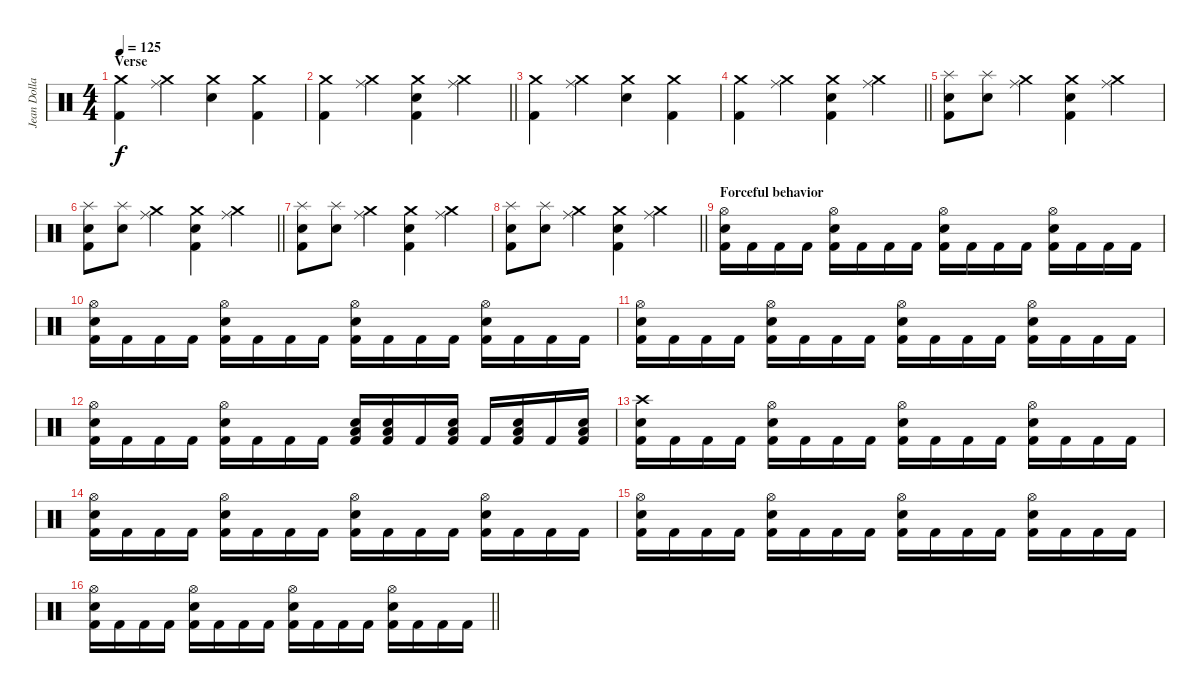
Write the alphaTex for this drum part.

\track ("Jean Dollabella" "Jean Dolla") {instrument percussion}
\staff {score}
\articulation defaults
\ts (4 4)
\section ("" "Verse")
\tempo 125
\clef neutral
\ks c
("Crash medium (hit)" "Kick (hit) 2").4{dy f} ("Crash medium (hit)" "Ride (middle)").4 ("Crash medium (hit)" "Snare (hit) 2").4 ("Crash medium (hit)" "Kick (hit) 2").4 |
\barLineRight lightlight
("Crash medium (hit)" "Kick (hit) 2").4 ("Crash medium (hit)" "Ride (middle)").4 ("Crash medium (hit)" "Snare (hit) 2" "Kick (hit) 2").4 ("Crash medium (hit)" "Ride (middle)").4 |
("Crash medium (hit)" "Kick (hit) 2").4 ("Crash medium (hit)" "Ride (middle)").4 ("Crash medium (hit)" "Snare (hit) 2").4 ("Crash medium (hit)" "Kick (hit) 2").4 |
\barLineRight lightlight
("Crash medium (hit)" "Kick (hit) 2").4 ("Crash medium (hit)" "Ride (middle)").4 ("Crash medium (hit)" "Snare (hit) 2" "Kick (hit) 2").4 ("Crash medium (hit)" "Ride (middle)").4 |
("Splash (hit)" "Snare (hit) 2" "Kick (hit) 2").8 ("Splash (hit)" "Snare (hit) 2").8 ("Crash medium (hit)" "Ride (middle)").4 ("Crash medium (hit)" "Snare (hit) 2" "Kick (hit) 2").4 ("Crash medium (hit)" "Ride (middle)").4 |
\barLineRight lightlight
("Splash (hit)" "Snare (hit) 2" "Kick (hit) 2").8 ("Splash (hit)" "Snare (hit) 2").8 ("Crash medium (hit)" "Ride (middle)").4 ("Crash medium (hit)" "Snare (hit) 2" "Kick (hit) 2").4 ("Crash medium (hit)" "Ride (middle)").4 |
("Splash (hit)" "Snare (hit) 2" "Kick (hit) 2").8 ("Splash (hit)" "Snare (hit) 2").8 ("Crash medium (hit)" "Ride (middle)").4 ("Crash medium (hit)" "Snare (hit) 2" "Kick (hit) 2").4 ("Crash medium (hit)" "Ride (middle)").4 |
\barLineRight lightlight
("Splash (hit)" "Snare (hit) 2" "Kick (hit) 2").8 ("Splash (hit)" "Snare (hit) 2").8 ("Crash medium (hit)" "Ride (middle)").4 ("Crash medium (hit)" "Snare (hit) 2" "Kick (hit) 2").4 ("Crash medium (hit)" "Ride (middle)").4 |
\section ("" "Forceful behavior")
("Hi-Hat (open)" "Snare (hit) 2" "Kick (hit) 2").16 "Kick (hit) 2".16 "Kick (hit) 2".16 "Kick (hit) 2".16 ("Hi-Hat (open)" "Snare (hit) 2" "Kick (hit) 2").16 "Kick (hit) 2".16 "Kick (hit) 2".16 "Kick (hit) 2".16 ("Hi-Hat (open)" "Snare (hit) 2" "Kick (hit) 2").16 "Kick (hit) 2".16 "Kick (hit) 2".16 "Kick (hit) 2".16 ("Hi-Hat (open)" "Snare (hit) 2" "Kick (hit) 2").16 "Kick (hit) 2".16 "Kick (hit) 2".16 "Kick (hit) 2".16 |
("Hi-Hat (open)" "Snare (hit) 2" "Kick (hit) 2").16 "Kick (hit) 2".16 "Kick (hit) 2".16 "Kick (hit) 2".16 ("Hi-Hat (open)" "Snare (hit) 2" "Kick (hit) 2").16 "Kick (hit) 2".16 "Kick (hit) 2".16 "Kick (hit) 2".16 ("Hi-Hat (open)" "Snare (hit) 2" "Kick (hit) 2").16 "Kick (hit) 2".16 "Kick (hit) 2".16 "Kick (hit) 2".16 ("Hi-Hat (open)" "Snare (hit) 2" "Kick (hit) 2").16 "Kick (hit) 2".16 "Kick (hit) 2".16 "Kick (hit) 2".16 |
("Hi-Hat (open)" "Snare (hit) 2" "Kick (hit) 2").16 "Kick (hit) 2".16 "Kick (hit) 2".16 "Kick (hit) 2".16 ("Hi-Hat (open)" "Snare (hit) 2" "Kick (hit) 2").16 "Kick (hit) 2".16 "Kick (hit) 2".16 "Kick (hit) 2".16 ("Hi-Hat (open)" "Snare (hit) 2" "Kick (hit) 2").16 "Kick (hit) 2".16 "Kick (hit) 2".16 "Kick (hit) 2".16 ("Hi-Hat (open)" "Snare (hit) 2" "Kick (hit) 2").16 "Kick (hit) 2".16 "Kick (hit) 2".16 "Kick (hit) 2".16 |
("Hi-Hat (open)" "Snare (hit) 2" "Kick (hit) 2").16 "Kick (hit) 2".16 "Kick (hit) 2".16 "Kick (hit) 2".16 ("Hi-Hat (open)" "Snare (hit) 2" "Kick (hit) 2").16 "Kick (hit) 2".16 "Kick (hit) 2".16 "Kick (hit) 2".16 ("Low Floor Tom (hit)" "Snare (hit) 2" "Kick (hit) 2").16 ("Low Floor Tom (hit)" "Snare (hit) 2" "Kick (hit) 2").16 "Kick (hit) 2".16 ("Low Floor Tom (hit)" "Snare (hit) 2" "Kick (hit) 2").16 "Kick (hit) 2".16 ("Low Floor Tom (hit)" "Snare (hit) 2" "Kick (hit) 2").16 "Kick (hit) 2".16 ("Low Floor Tom (hit)" "Snare (hit) 2" "Kick (hit) 2").16 |
("Crash high (hit)" "Snare (hit) 2" "Kick (hit) 2").16 "Kick (hit) 2".16 "Kick (hit) 2".16 "Kick (hit) 2".16 ("Hi-Hat (open)" "Snare (hit) 2" "Kick (hit) 2").16 "Kick (hit) 2".16 "Kick (hit) 2".16 "Kick (hit) 2".16 ("Hi-Hat (open)" "Snare (hit) 2" "Kick (hit) 2").16 "Kick (hit) 2".16 "Kick (hit) 2".16 "Kick (hit) 2".16 ("Hi-Hat (open)" "Snare (hit) 2" "Kick (hit) 2").16 "Kick (hit) 2".16 "Kick (hit) 2".16 "Kick (hit) 2".16 |
("Hi-Hat (open)" "Snare (hit) 2" "Kick (hit) 2").16 "Kick (hit) 2".16 "Kick (hit) 2".16 "Kick (hit) 2".16 ("Hi-Hat (open)" "Snare (hit) 2" "Kick (hit) 2").16 "Kick (hit) 2".16 "Kick (hit) 2".16 "Kick (hit) 2".16 ("Hi-Hat (open)" "Snare (hit) 2" "Kick (hit) 2").16 "Kick (hit) 2".16 "Kick (hit) 2".16 "Kick (hit) 2".16 ("Hi-Hat (open)" "Snare (hit) 2" "Kick (hit) 2").16 "Kick (hit) 2".16 "Kick (hit) 2".16 "Kick (hit) 2".16 |
("Hi-Hat (open)" "Snare (hit) 2" "Kick (hit) 2").16 "Kick (hit) 2".16 "Kick (hit) 2".16 "Kick (hit) 2".16 ("Hi-Hat (open)" "Snare (hit) 2" "Kick (hit) 2").16 "Kick (hit) 2".16 "Kick (hit) 2".16 "Kick (hit) 2".16 ("Hi-Hat (open)" "Snare (hit) 2" "Kick (hit) 2").16 "Kick (hit) 2".16 "Kick (hit) 2".16 "Kick (hit) 2".16 ("Hi-Hat (open)" "Snare (hit) 2" "Kick (hit) 2").16 "Kick (hit) 2".16 "Kick (hit) 2".16 "Kick (hit) 2".16 |
\barLineRight lightlight
("Hi-Hat (open)" "Snare (hit) 2" "Kick (hit) 2").16 "Kick (hit) 2".16 "Kick (hit) 2".16 "Kick (hit) 2".16 ("Hi-Hat (open)" "Snare (hit) 2" "Kick (hit) 2").16 "Kick (hit) 2".16 "Kick (hit) 2".16 "Kick (hit) 2".16 ("Hi-Hat (open)" "Snare (hit) 2" "Kick (hit) 2").16 "Kick (hit) 2".16 "Kick (hit) 2".16 "Kick (hit) 2".16 ("Hi-Hat (open)" "Snare (hit) 2" "Kick (hit) 2").16 "Kick (hit) 2".16 "Kick (hit) 2".16 "Kick (hit) 2".16
